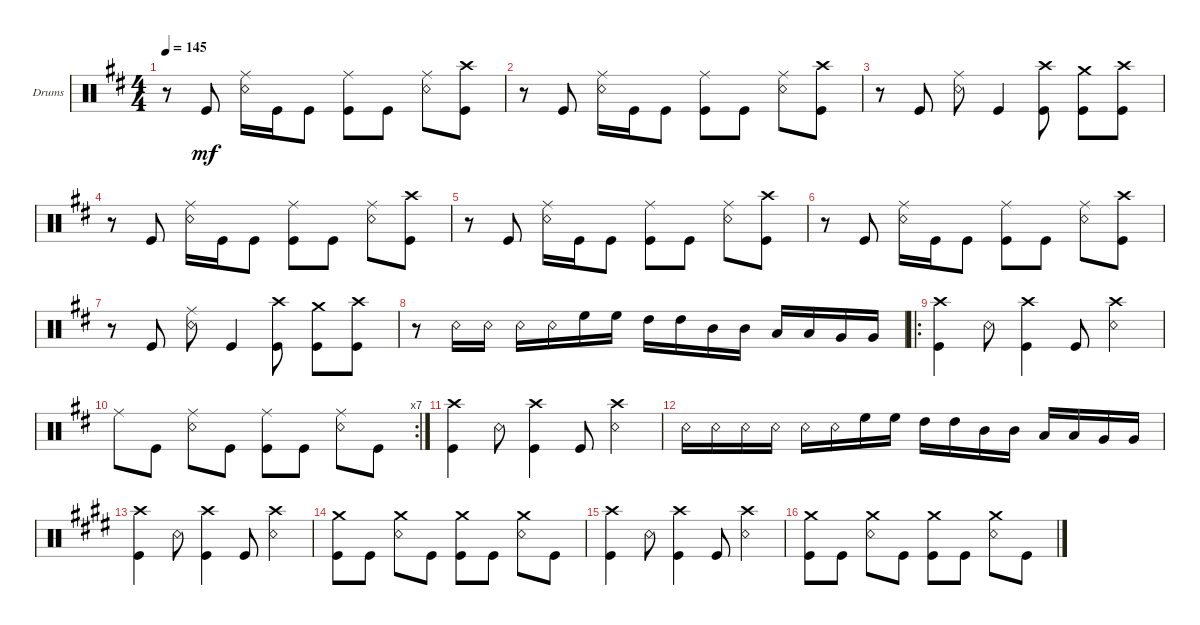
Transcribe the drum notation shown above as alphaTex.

\defaultSystemsLayout 4
\bracketExtendMode groupsimilarinstruments
\firstSystemTrackNameOrientation horizontal
\otherSystemsTrackNameOrientation horizontal
\track ("Drumkit" "Drums") {instrument percussion}
\staff {score}
\articulation defaults
\ts (4 4)
\tempo 145
\clef neutral
\ks bminor
r.8{dy mf} "Kick (hit)".8 ("Snare (rim shot)" "Ride (middle)").16 "Kick (hit)".16 "Kick (hit)".8 ("Kick (hit)" "Ride (middle)").8 "Kick (hit)".8 ("Snare (rim shot)" "Ride (middle)").8 ("Kick (hit)" "Crash high (hit)").8 |
r.8 "Kick (hit)".8 ("Snare (rim shot)" "Ride (middle)").16 "Kick (hit)".16 "Kick (hit)".8 ("Kick (hit)" "Ride (middle)").8 "Kick (hit)".8 ("Snare (rim shot)" "Ride (middle)").8 ("Kick (hit)" "Crash high (hit)").8 |
r.8 "Kick (hit)".8 ("Snare (rim shot)" "Ride (middle)").8 "Kick (hit)".4 ("Kick (hit)" "Crash high (hit)").8 ("Kick (hit)" "Crash medium (hit)").8 ("Kick (hit)" "Crash high (hit)").8 |
r.8 "Kick (hit)".8 ("Snare (rim shot)" "Ride (middle)").16 "Kick (hit)".16 "Kick (hit)".8 ("Kick (hit)" "Ride (middle)").8 "Kick (hit)".8 ("Snare (rim shot)" "Ride (middle)").8 ("Kick (hit)" "Crash high (hit)").8 |
r.8 "Kick (hit)".8 ("Snare (rim shot)" "Ride (middle)").16 "Kick (hit)".16 "Kick (hit)".8 ("Kick (hit)" "Ride (middle)").8 "Kick (hit)".8 ("Snare (rim shot)" "Ride (middle)").8 ("Kick (hit)" "Crash high (hit)").8 |
r.8 "Kick (hit)".8 ("Snare (rim shot)" "Ride (middle)").16 "Kick (hit)".16 "Kick (hit)".8 ("Kick (hit)" "Ride (middle)").8 "Kick (hit)".8 ("Snare (rim shot)" "Ride (middle)").8 ("Kick (hit)" "Crash high (hit)").8 |
r.8 "Kick (hit)".8 ("Snare (rim shot)" "Ride (middle)").8 "Kick (hit)".4 ("Kick (hit)" "Crash high (hit)").8 ("Kick (hit)" "Crash medium (hit)").8 ("Kick (hit)" "Crash high (hit)").8 |
r.8 "Snare (rim shot)".16 "Snare (rim shot)".16 "Snare (rim shot)".16 "Snare (rim shot)".16 "High Floor Tom (hit)".16 "High Floor Tom (hit)".16 "High Tom (hit)".16 "High Tom (hit)".16 "Mid Tom (hit)".16 "Mid Tom (hit)".16 "Low Tom (hit)".16 "Low Tom (hit)".16 "Very Low Tom (hit)".16 "Very Low Tom (hit)".16 |
\ro
("Kick (hit)" "Crash high (hit)").4 "Snare (rim shot)".8 ("Kick (hit)" "Crash high (hit)").4 "Kick (hit)".8 ("Snare (rim shot)" "Crash high (hit)").4 |
\rc 7 "Ride (middle)".8 "Kick (hit)".8
("Snare (rim shot)" "Ride (middle)").8 "Kick (hit)".8 ("Kick (hit)" "Ride (middle)").8 "Kick (hit)".8 ("Snare (rim shot)" "Ride (middle)").8 "Kick (hit)".8 |
("Kick (hit)" "Crash high (hit)").4 "Snare (rim shot)".8 ("Kick (hit)" "Crash high (hit)").4 "Kick (hit)".8 ("Snare (rim shot)" "Crash high (hit)").4 |
"Snare (rim shot)".16 "Snare (rim shot)".16 "Snare (rim shot)".16 "Snare (rim shot)".16 "Snare (rim shot)".16 "Snare (rim shot)".16 "High Floor Tom (hit)".16 "High Floor Tom (hit)".16 "High Tom (hit)".16 "High Tom (hit)".16 "Mid Tom (hit)".16 "Mid Tom (hit)".16 "Low Tom (hit)".16 "Low Tom (hit)".16 "Very Low Tom (hit)".16 "Very Low Tom (hit)".16 |
\ks c#minor
("Kick (hit)" "Crash high (hit)").4 "Snare (rim shot)".8 ("Kick (hit)" "Crash high (hit)").4 "Kick (hit)".8 ("Snare (rim shot)" "Crash high (hit)").4 |
("Kick (hit)" "Crash medium (hit)").8 "Kick (hit)".8 ("Snare (rim shot)" "Crash medium (hit)").8 "Kick (hit)".8 ("Kick (hit)" "Crash medium (hit)").8 "Kick (hit)".8 ("Snare (rim shot)" "Crash medium (hit)").8 "Kick (hit)".8 |
("Kick (hit)" "Crash high (hit)").4 "Snare (rim shot)".8 ("Kick (hit)" "Crash high (hit)").4 "Kick (hit)".8 ("Snare (rim shot)" "Crash high (hit)").4 |
("Kick (hit)" "Crash medium (hit)").8 "Kick (hit)".8 ("Snare (rim shot)" "Crash medium (hit)").8 "Kick (hit)".8 ("Kick (hit)" "Crash medium (hit)").8 "Kick (hit)".8 ("Snare (rim shot)" "Crash medium (hit)").8 "Kick (hit)".8
